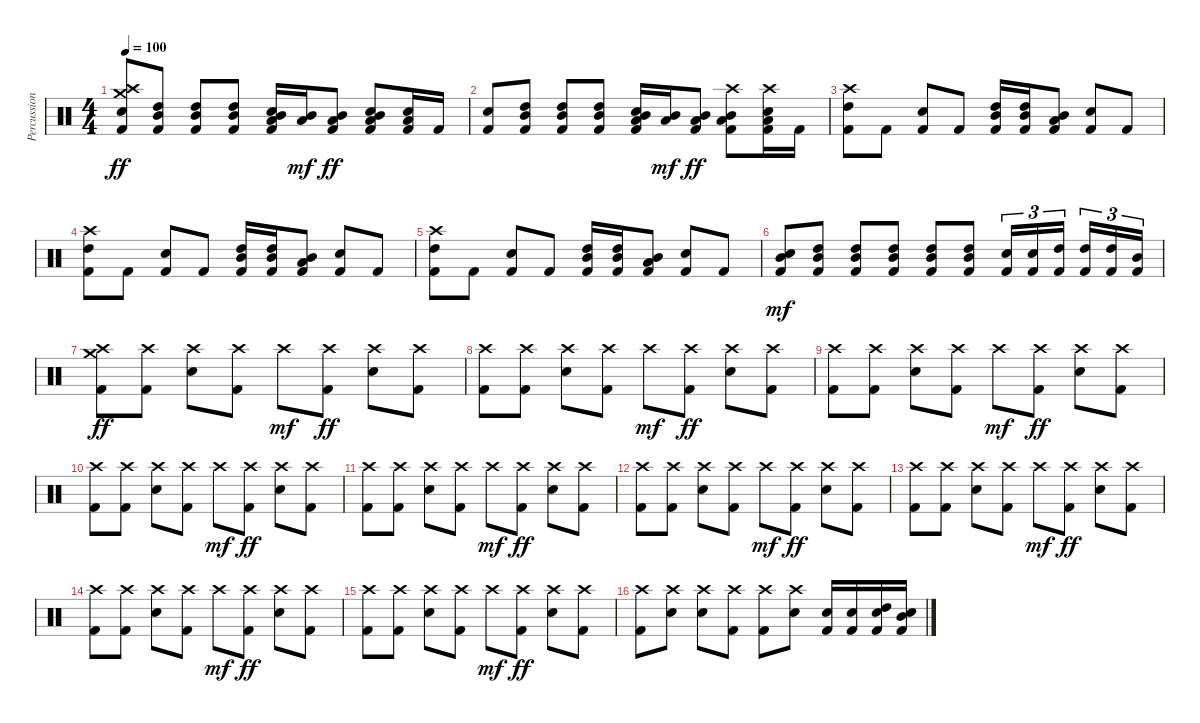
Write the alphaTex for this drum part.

\track ("Percussions" "Percussion") {instrument percussion}
\staff {score}
\articulation defaults
\ts (4 4)
\tempo 100
\clef neutral
\ks c
("Electric Snare (hit)" "Crash medium (hit)" "Crash high (hit)" "Kick (hit) 2").8{dy ff} ("High Tom (hit)" "Mid Tom (hit)" "Kick (hit) 2").8 ("High Tom (hit)" "Mid Tom (hit)" "Kick (hit) 2").8 ("High Tom (hit)" "Mid Tom (hit)" "Kick (hit) 2").8 ("Mid Tom (hit)" "Low Tom (hit)" "Electric Snare (hit)" "Kick (hit) 2").16 ("Mid Tom (hit)" "Low Tom (hit)").16{dy mf} ("Mid Tom (hit)" "Low Tom (hit)" "Kick (hit) 2").8{dy ff} ("Mid Tom (hit)" "Low Tom (hit)" "Electric Snare (hit)" "Kick (hit) 2").8 ("Low Tom (hit)" "Metronome (bell)" "Kick (hit) 2").16 "Kick (hit) 2".16 |
("Electric Snare (hit)" "Kick (hit) 2").8 ("High Tom (hit)" "Mid Tom (hit)" "Kick (hit) 2").8 ("High Tom (hit)" "Mid Tom (hit)" "Kick (hit) 2").8 ("High Tom (hit)" "Mid Tom (hit)" "Kick (hit) 2").8 ("Mid Tom (hit)" "Low Tom (hit)" "Electric Snare (hit)" "Kick (hit) 2").16 ("Mid Tom (hit)" "Low Tom (hit)").16{dy mf} ("Mid Tom (hit)" "Low Tom (hit)" "Kick (hit) 2").8{dy ff} ("Mid Tom (hit)" "Low Tom (hit)" "Crash high (hit)" "Kick (hit) 2").8 ("Low Tom (hit)" "Metronome (bell)" "Crash high (hit)" "Kick (hit) 2").16 "Kick (hit) 2".16 |
("Crash high (hit)" "High Tom (hit)" "Kick (hit) 2").8 "Kick (hit) 2".8 ("Electric Snare (hit)" "Kick (hit) 2").8 "Kick (hit) 2".8 ("Mid Tom (hit)" "High Tom (hit)" "Kick (hit) 2").16 ("Mid Tom (hit)" "High Tom (hit)" "Kick (hit) 2").16 ("Low Tom (hit)" "Mid Tom (hit)" "Kick (hit) 2").8 ("Electric Snare (hit)" "Kick (hit) 2").8 "Kick (hit) 2".8 |
("Crash high (hit)" "High Tom (hit)" "Kick (hit) 2").8 "Kick (hit) 2".8 ("Electric Snare (hit)" "Kick (hit) 2").8 "Kick (hit) 2".8 ("Mid Tom (hit)" "High Tom (hit)" "Kick (hit) 2").16 ("Mid Tom (hit)" "High Tom (hit)" "Kick (hit) 2").16 ("Low Tom (hit)" "Mid Tom (hit)" "Kick (hit) 2").8 ("Electric Snare (hit)" "Kick (hit) 2").8 "Kick (hit) 2".8 |
("Crash high (hit)" "High Tom (hit)" "Kick (hit) 2").8 "Kick (hit) 2".8 ("Electric Snare (hit)" "Kick (hit) 2").8 "Kick (hit) 2".8 ("Mid Tom (hit)" "High Tom (hit)" "Kick (hit) 2").16 ("Mid Tom (hit)" "High Tom (hit)" "Kick (hit) 2").16 ("Low Tom (hit)" "Mid Tom (hit)" "Kick (hit) 2").8 ("Electric Snare (hit)" "Kick (hit) 2").8 "Kick (hit) 2".8 |
("Electric Snare (hit)" "Mid Tom (hit)" "Kick (hit) 2").8{dy mf} ("High Tom (hit)" "Mid Tom (hit)" "Kick (hit) 2").8 ("High Tom (hit)" "Mid Tom (hit)" "Kick (hit) 2").8 ("High Tom (hit)" "Mid Tom (hit)" "Kick (hit) 2").8 ("High Tom (hit)" "Mid Tom (hit)" "Kick (hit) 2").8 ("High Tom (hit)" "Mid Tom (hit)" "Kick (hit) 2").8 ("Electric Snare (hit)" "Kick (hit) 2").16{tu (3 2)} ("Electric Snare (hit)" "Kick (hit) 2").16{tu (3 2)} ("High Tom (hit)" "Kick (hit) 2").16{tu (3 2)} ("High Tom (hit)" "Kick (hit) 2").16{tu (3 2)} ("High Tom (hit)" "Kick (hit) 2").16{tu (3 2)} ("Mid Tom (hit)" "Kick (hit) 2").16{tu (3 2)} |
("Crash high (hit)" "Crash medium (hit)" "Kick (hit) 2").8{dy ff} ("Crash high (hit)" "Kick (hit) 2").8 ("Crash high (hit)" "Electric Snare (hit)").8 ("Crash high (hit)" "Kick (hit) 2").8 "Crash high (hit)".8{dy mf} ("Crash high (hit)" "Kick (hit) 2").8{dy ff} ("Crash high (hit)" "Electric Snare (hit)").8 ("Crash high (hit)" "Kick (hit) 2").8 |
("Crash high (hit)" "Kick (hit) 2").8 ("Crash high (hit)" "Kick (hit) 2").8 ("Crash high (hit)" "Electric Snare (hit)").8 ("Crash high (hit)" "Kick (hit) 2").8 "Crash high (hit)".8{dy mf} ("Crash high (hit)" "Kick (hit) 2").8{dy ff} ("Crash high (hit)" "Electric Snare (hit)").8 ("Crash high (hit)" "Kick (hit) 2").8 |
("Crash high (hit)" "Kick (hit) 2").8 ("Crash high (hit)" "Kick (hit) 2").8 ("Crash high (hit)" "Electric Snare (hit)").8 ("Crash high (hit)" "Kick (hit) 2").8 "Crash high (hit)".8{dy mf} ("Crash high (hit)" "Kick (hit) 2").8{dy ff} ("Crash high (hit)" "Electric Snare (hit)").8 ("Crash high (hit)" "Kick (hit) 2").8 |
("Crash high (hit)" "Kick (hit) 2").8 ("Crash high (hit)" "Kick (hit) 2").8 ("Crash high (hit)" "Electric Snare (hit)").8 ("Crash high (hit)" "Kick (hit) 2").8 "Crash high (hit)".8{dy mf} ("Crash high (hit)" "Kick (hit) 2").8{dy ff} ("Crash high (hit)" "Electric Snare (hit)").8 ("Crash high (hit)" "Kick (hit) 2").8 |
("Crash high (hit)" "Kick (hit) 2").8 ("Crash high (hit)" "Kick (hit) 2").8 ("Crash high (hit)" "Electric Snare (hit)").8 ("Crash high (hit)" "Kick (hit) 2").8 "Crash high (hit)".8{dy mf} ("Crash high (hit)" "Kick (hit) 2").8{dy ff} ("Crash high (hit)" "Electric Snare (hit)").8 ("Crash high (hit)" "Kick (hit) 2").8 |
("Crash high (hit)" "Kick (hit) 2").8 ("Crash high (hit)" "Kick (hit) 2").8 ("Crash high (hit)" "Electric Snare (hit)").8 ("Crash high (hit)" "Kick (hit) 2").8 "Crash high (hit)".8{dy mf} ("Crash high (hit)" "Kick (hit) 2").8{dy ff} ("Crash high (hit)" "Electric Snare (hit)").8 ("Crash high (hit)" "Kick (hit) 2").8 |
("Crash high (hit)" "Kick (hit) 2").8 ("Crash high (hit)" "Kick (hit) 2").8 ("Crash high (hit)" "Electric Snare (hit)").8 ("Crash high (hit)" "Kick (hit) 2").8 "Crash high (hit)".8{dy mf} ("Crash high (hit)" "Kick (hit) 2").8{dy ff} ("Crash high (hit)" "Electric Snare (hit)").8 ("Crash high (hit)" "Kick (hit) 2").8 |
("Crash high (hit)" "Kick (hit) 2").8 ("Crash high (hit)" "Kick (hit) 2").8 ("Crash high (hit)" "Electric Snare (hit)").8 ("Crash high (hit)" "Kick (hit) 2").8 "Crash high (hit)".8{dy mf} ("Crash high (hit)" "Kick (hit) 2").8{dy ff} ("Crash high (hit)" "Electric Snare (hit)").8 ("Crash high (hit)" "Kick (hit) 2").8 |
("Crash high (hit)" "Kick (hit) 2").8 ("Crash high (hit)" "Kick (hit) 2").8 ("Crash high (hit)" "Electric Snare (hit)").8 ("Crash high (hit)" "Kick (hit) 2").8 "Crash high (hit)".8{dy mf} ("Crash high (hit)" "Kick (hit) 2").8{dy ff} ("Crash high (hit)" "Electric Snare (hit)").8 ("Crash high (hit)" "Kick (hit) 2").8 |
("Crash high (hit)" "Kick (hit) 2").8 ("Crash high (hit)" "Electric Snare (hit)").8 ("Crash high (hit)" "Electric Snare (hit)").8 ("Crash high (hit)" "Kick (hit) 2").8 ("Crash high (hit)" "Kick (hit) 2").8 ("Crash high (hit)" "Electric Snare (hit)").8 ("Electric Snare (hit)" "Kick (hit) 2").16 ("Electric Snare (hit)" "Kick (hit) 2").16 ("High Tom (hit)" "Electric Snare (hit)" "Kick (hit) 2").16 ("Mid Tom (hit)" "Electric Snare (hit)" "Kick (hit) 2").16
